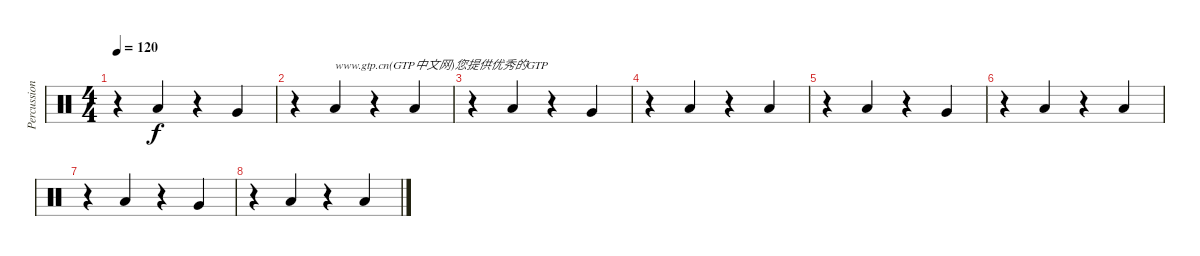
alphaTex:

\track ("Percussion" "Percussion") {instrument percussion}
\staff {score}
\articulation defaults
\ts (4 4)
\tempo 120
\clef neutral
\ks c
r.4{dy f} "Low Floor Tom (hit)".4 r.4 "Very Low Tom (hit)".4 |
r.4 "Low Floor Tom (hit)".4{txt "www.gtp.cn(GTP中文网)您提供优秀的GTP"} r.4 "Low Floor Tom (hit)".4 |
r.4 "Low Floor Tom (hit)".4 r.4 "Very Low Tom (hit)".4 |
r.4 "Low Floor Tom (hit)".4 r.4 "Low Floor Tom (hit)".4 |
r.4 "Low Floor Tom (hit)".4 r.4 "Very Low Tom (hit)".4 |
r.4 "Low Floor Tom (hit)".4 r.4 "Low Floor Tom (hit)".4 |
r.4 "Low Floor Tom (hit)".4 r.4 "Very Low Tom (hit)".4 |
r.4 "Low Floor Tom (hit)".4 r.4 "Low Floor Tom (hit)".4
